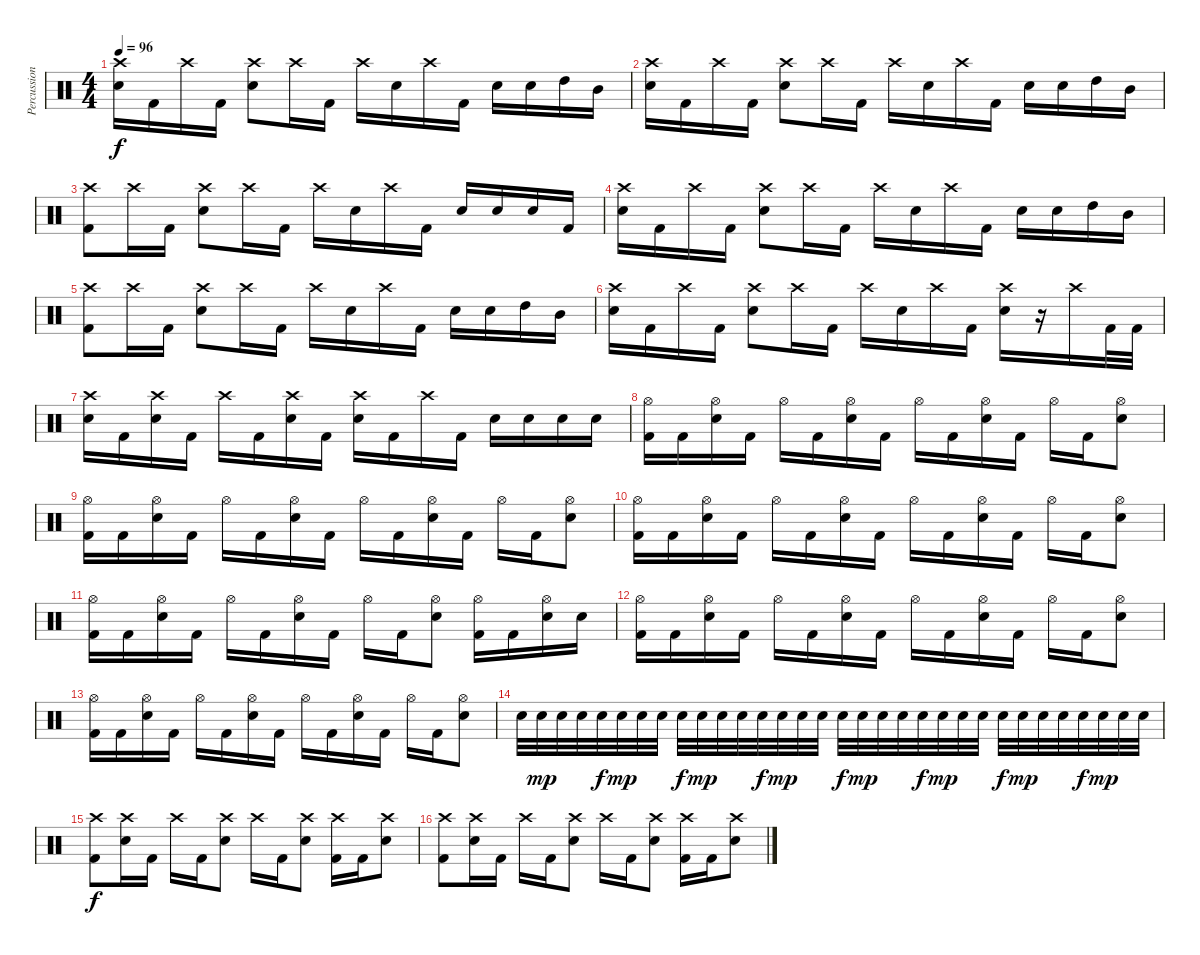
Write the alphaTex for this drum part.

\track ("Percussion" "Percussion") {instrument percussion}
\staff {score}
\articulation defaults
\ts (4 4)
\tempo 96
\clef neutral
\ks c
("Crash high (hit)" "Snare (hit) 2").16{dy f} "Kick (hit) 2".16 "Crash high (hit)".16 "Kick (hit) 2".16 ("Crash high (hit)" "Snare (hit) 2").8 "Crash high (hit)".16 "Kick (hit) 2".16 "Crash high (hit)".16 "Snare (hit) 2".16 "Crash high (hit)".16 "Kick (hit) 2".16 "Snare (hit) 2".16 "Snare (hit) 2".16 "High Tom (hit)".16 "Mid Tom (hit)".16 |
("Crash high (hit)" "Snare (hit) 2").16 "Kick (hit) 2".16 "Crash high (hit)".16 "Kick (hit) 2".16 ("Crash high (hit)" "Snare (hit) 2").8 "Crash high (hit)".16 "Kick (hit) 2".16 "Crash high (hit)".16 "Snare (hit) 2".16 "Crash high (hit)".16 "Kick (hit) 2".16 "Snare (hit) 2".16 "Snare (hit) 2".16 "High Tom (hit)".16 "Mid Tom (hit)".16 |
("Crash high (hit)" "Kick (hit) 2").8 "Crash high (hit)".16 "Kick (hit) 2".16 ("Crash high (hit)" "Snare (hit) 2").8 "Crash high (hit)".16 "Kick (hit) 2".16 "Crash high (hit)".16 "Snare (hit) 2".16 "Crash high (hit)".16 "Kick (hit) 2".16 "Snare (hit) 2".16 "Snare (hit) 2".16 "Snare (hit) 2".16 "Kick (hit) 2".16 |
("Crash high (hit)" "Snare (hit) 2").16 "Kick (hit) 2".16 "Crash high (hit)".16 "Kick (hit) 2".16 ("Crash high (hit)" "Snare (hit) 2").8 "Crash high (hit)".16 "Kick (hit) 2".16 "Crash high (hit)".16 "Snare (hit) 2".16 "Crash high (hit)".16 "Kick (hit) 2".16 "Snare (hit) 2".16 "Snare (hit) 2".16 "High Tom (hit)".16 "Mid Tom (hit)".16 |
("Crash high (hit)" "Kick (hit) 2").8 "Crash high (hit)".16 "Kick (hit) 2".16 ("Crash high (hit)" "Snare (hit) 2").8 "Crash high (hit)".16 "Kick (hit) 2".16 "Crash high (hit)".16 "Snare (hit) 2".16 "Crash high (hit)".16 "Kick (hit) 2".16 "Snare (hit) 2".16 "Snare (hit) 2".16 "High Tom (hit)".16 "Mid Tom (hit)".16 |
("Crash high (hit)" "Snare (hit) 2").16 "Kick (hit) 2".16 "Crash high (hit)".16 "Kick (hit) 2".16 ("Crash high (hit)" "Snare (hit) 2").8 "Crash high (hit)".16 "Kick (hit) 2".16 "Crash high (hit)".16 "Snare (hit) 2".16 "Crash high (hit)".16 "Kick (hit) 2".16 ("Crash high (hit)" "Snare (hit) 2").16 r.16 "Crash high (hit)".16 "Kick (hit) 2".32 "Kick (hit) 2".32 |
("Crash high (hit)" "Snare (hit) 2").16 "Kick (hit) 2".16 ("Crash high (hit)" "Snare (hit) 2").16 "Kick (hit) 2".16 "Crash high (hit)".16 "Kick (hit) 2".16 ("Crash high (hit)" "Snare (hit) 2").16 "Kick (hit) 2".16 ("Crash high (hit)" "Snare (hit) 2").16 "Kick (hit) 2".16 "Crash high (hit)".16 "Kick (hit) 2".16 "Snare (hit) 2".16 "Snare (hit) 2".16 "Snare (hit) 2".16 "Snare (hit) 2".16 |
("Hi-Hat (open)" "Kick (hit) 2").16 "Kick (hit) 2".16 ("Hi-Hat (open)" "Snare (hit) 2").16 "Kick (hit) 2".16 "Hi-Hat (open)".16 "Kick (hit) 2".16 ("Hi-Hat (open)" "Snare (hit) 2").16 "Kick (hit) 2".16 "Hi-Hat (open)".16 "Kick (hit) 2".16 ("Hi-Hat (open)" "Snare (hit) 2").16 "Kick (hit) 2".16 "Hi-Hat (open)".16 "Kick (hit) 2".16 ("Hi-Hat (open)" "Snare (hit) 2").8 |
("Hi-Hat (open)" "Kick (hit) 2").16 "Kick (hit) 2".16 ("Hi-Hat (open)" "Snare (hit) 2").16 "Kick (hit) 2".16 "Hi-Hat (open)".16 "Kick (hit) 2".16 ("Hi-Hat (open)" "Snare (hit) 2").16 "Kick (hit) 2".16 "Hi-Hat (open)".16 "Kick (hit) 2".16 ("Hi-Hat (open)" "Snare (hit) 2").16 "Kick (hit) 2".16 "Hi-Hat (open)".16 "Kick (hit) 2".16 ("Hi-Hat (open)" "Snare (hit) 2").8 |
("Hi-Hat (open)" "Kick (hit) 2").16 "Kick (hit) 2".16 ("Hi-Hat (open)" "Snare (hit) 2").16 "Kick (hit) 2".16 "Hi-Hat (open)".16 "Kick (hit) 2".16 ("Hi-Hat (open)" "Snare (hit) 2").16 "Kick (hit) 2".16 "Hi-Hat (open)".16 "Kick (hit) 2".16 ("Hi-Hat (open)" "Snare (hit) 2").16 "Kick (hit) 2".16 "Hi-Hat (open)".16 "Kick (hit) 2".16 ("Hi-Hat (open)" "Snare (hit) 2").8 |
("Hi-Hat (open)" "Kick (hit) 2").16 "Kick (hit) 2".16 ("Hi-Hat (open)" "Snare (hit) 2").16 "Kick (hit) 2".16 "Hi-Hat (open)".16 "Kick (hit) 2".16 ("Hi-Hat (open)" "Snare (hit) 2").16 "Kick (hit) 2".16 "Hi-Hat (open)".16 "Kick (hit) 2".16 ("Hi-Hat (open)" "Snare (hit) 2").8 ("Hi-Hat (open)" "Kick (hit) 2").16 "Kick (hit) 2".16 ("Hi-Hat (open)" "Snare (hit) 2").16 "Snare (hit) 2".16 |
("Hi-Hat (open)" "Kick (hit) 2").16 "Kick (hit) 2".16 ("Hi-Hat (open)" "Snare (hit) 2").16 "Kick (hit) 2".16 "Hi-Hat (open)".16 "Kick (hit) 2".16 ("Hi-Hat (open)" "Snare (hit) 2").16 "Kick (hit) 2".16 "Hi-Hat (open)".16 "Kick (hit) 2".16 ("Hi-Hat (open)" "Snare (hit) 2").16 "Kick (hit) 2".16 "Hi-Hat (open)".16 "Kick (hit) 2".16 ("Hi-Hat (open)" "Snare (hit) 2").8 |
("Hi-Hat (open)" "Kick (hit) 2").16 "Kick (hit) 2".16 ("Hi-Hat (open)" "Snare (hit) 2").16 "Kick (hit) 2".16 "Hi-Hat (open)".16 "Kick (hit) 2".16 ("Hi-Hat (open)" "Snare (hit) 2").16 "Kick (hit) 2".16 "Hi-Hat (open)".16 "Kick (hit) 2".16 ("Hi-Hat (open)" "Snare (hit) 2").16 "Kick (hit) 2".16 "Hi-Hat (open)".16 "Kick (hit) 2".16 ("Hi-Hat (open)" "Snare (hit) 2").8 |
"Snare (hit) 2".32 "Snare (hit) 2".32{dy mp} "Snare (hit) 2".32 "Snare (hit) 2".32 "Snare (hit) 2".32{dy f} "Snare (hit) 2".32{dy mp} "Snare (hit) 2".32 "Snare (hit) 2".32 "Snare (hit) 2".32{dy f} "Snare (hit) 2".32{dy mp} "Snare (hit) 2".32 "Snare (hit) 2".32 "Snare (hit) 2".32{dy f} "Snare (hit) 2".32{dy mp} "Snare (hit) 2".32 "Snare (hit) 2".32 "Snare (hit) 2".32{dy f} "Snare (hit) 2".32{dy mp} "Snare (hit) 2".32 "Snare (hit) 2".32 "Snare (hit) 2".32{dy f} "Snare (hit) 2".32{dy mp} "Snare (hit) 2".32 "Snare (hit) 2".32 "Snare (hit) 2".32{dy f} "Snare (hit) 2".32{dy mp} "Snare (hit) 2".32 "Snare (hit) 2".32 "Snare (hit) 2".32{dy f} "Snare (hit) 2".32{dy mp} "Snare (hit) 2".32 "Snare (hit) 2".32 |
("Crash high (hit)" "Kick (hit) 2").8{dy f} ("Crash high (hit)" "Snare (hit) 2").16 "Kick (hit) 2".16 "Crash high (hit)".16 "Kick (hit) 2".16 ("Crash high (hit)" "Snare (hit) 2").8 "Crash high (hit)".16 "Kick (hit) 2".16 ("Crash high (hit)" "Snare (hit) 2").8 ("Crash high (hit)" "Kick (hit) 2").16 "Kick (hit) 2".16 ("Crash high (hit)" "Snare (hit) 2").8 |
("Crash high (hit)" "Kick (hit) 2").8 ("Crash high (hit)" "Snare (hit) 2").16 "Kick (hit) 2".16 "Crash high (hit)".16 "Kick (hit) 2".16 ("Crash high (hit)" "Snare (hit) 2").8 "Crash high (hit)".16 "Kick (hit) 2".16 ("Crash high (hit)" "Snare (hit) 2").8 ("Crash high (hit)" "Kick (hit) 2").16 "Kick (hit) 2".16 ("Crash high (hit)" "Snare (hit) 2").8
